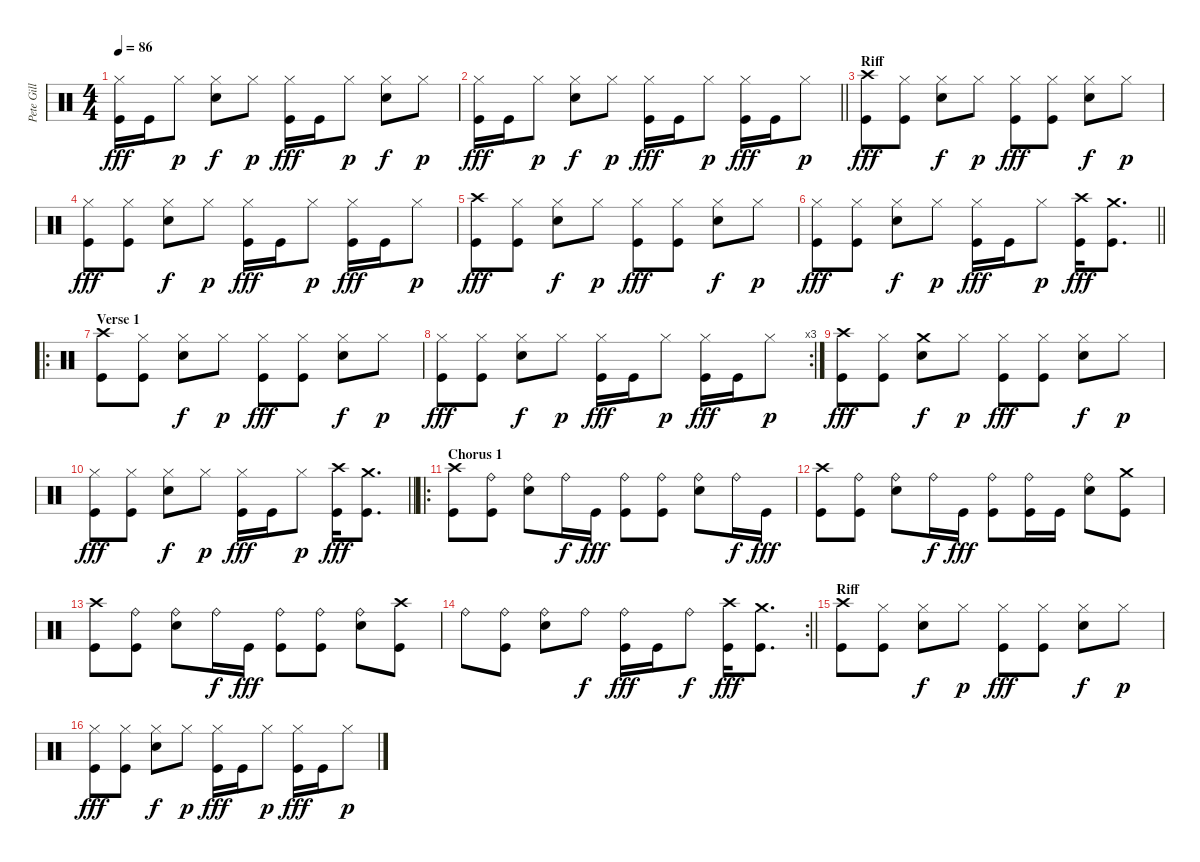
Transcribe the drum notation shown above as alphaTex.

\track ("Pete Gill" "Pete Gill") {instrument percussion}
\staff {score}
\articulation defaults
\ts (4 4)
\tempo 86
\clef neutral
\ks c
("Hi-Hat (closed)" "Kick (hit)").16{dy fff} "Kick (hit)".16 "Hi-Hat (closed)".8{dy p} ("Hi-Hat (closed)" "Electric Snare (hit)").8{dy f} "Hi-Hat (closed)".8{dy p} ("Hi-Hat (closed)" "Kick (hit)").16{dy fff} "Kick (hit)".16 "Hi-Hat (closed)".8{dy p} ("Hi-Hat (closed)" "Electric Snare (hit)").8{dy f} "Hi-Hat (closed)".8{dy p} |
\barLineRight lightlight
("Hi-Hat (closed)" "Kick (hit)").16{dy fff} "Kick (hit)".16 "Hi-Hat (closed)".8{dy p} ("Hi-Hat (closed)" "Electric Snare (hit)").8{dy f} "Hi-Hat (closed)".8{dy p} ("Hi-Hat (closed)" "Kick (hit)").16{dy fff} "Kick (hit)".16 "Hi-Hat (closed)".8{dy p} ("Hi-Hat (closed)" "Kick (hit)").16{dy fff} "Kick (hit)".16 "Hi-Hat (closed)".8{dy p} |
\section ("" "Riff")
("Crash high (hit)" "Kick (hit)").8{dy fff} ("Hi-Hat (closed)" "Kick (hit)").8 ("Hi-Hat (closed)" "Electric Snare (hit)").8{dy f} "Hi-Hat (closed)".8{dy p} ("Hi-Hat (closed)" "Kick (hit)").8{dy fff} ("Hi-Hat (closed)" "Kick (hit)").8 ("Hi-Hat (closed)" "Electric Snare (hit)").8{dy f} "Hi-Hat (closed)".8{dy p} |
("Hi-Hat (closed)" "Kick (hit)").8{dy fff} ("Hi-Hat (closed)" "Kick (hit)").8 ("Hi-Hat (closed)" "Electric Snare (hit)").8{dy f} "Hi-Hat (closed)".8{dy p} ("Hi-Hat (closed)" "Kick (hit)").16{dy fff} "Kick (hit)".16 "Hi-Hat (closed)".8{dy p} ("Hi-Hat (closed)" "Kick (hit)").16{dy fff} "Kick (hit)".16 "Hi-Hat (closed)".8{dy p} |
("Crash high (hit)" "Kick (hit)").8{dy fff} ("Hi-Hat (closed)" "Kick (hit)").8 ("Hi-Hat (closed)" "Electric Snare (hit)").8{dy f} "Hi-Hat (closed)".8{dy p} ("Hi-Hat (closed)" "Kick (hit)").8{dy fff} ("Hi-Hat (closed)" "Kick (hit)").8 ("Hi-Hat (closed)" "Electric Snare (hit)").8{dy f} "Hi-Hat (closed)".8{dy p} |
\barLineRight lightlight
("Hi-Hat (closed)" "Kick (hit)").8{dy fff} ("Hi-Hat (closed)" "Kick (hit)").8 ("Hi-Hat (closed)" "Electric Snare (hit)").8{dy f} "Hi-Hat (closed)".8{dy p} ("Hi-Hat (closed)" "Kick (hit)").16{dy fff} "Kick (hit)".16 "Hi-Hat (closed)".8{dy p} ("Crash high (hit)" "Kick (hit)").16{dy fff} ("Crash medium (hit)" "Kick (hit)").8{d} |
\ro
\section ("" "Verse 1")
("Crash high (hit)" "Kick (hit)").8 ("Hi-Hat (closed)" "Kick (hit)").8 ("Hi-Hat (closed)" "Electric Snare (hit)").8{dy f} "Hi-Hat (closed)".8{dy p} ("Hi-Hat (closed)" "Kick (hit)").8{dy fff} ("Hi-Hat (closed)" "Kick (hit)").8 ("Hi-Hat (closed)" "Electric Snare (hit)").8{dy f} "Hi-Hat (closed)".8{dy p} |
\rc 3
("Hi-Hat (closed)" "Kick (hit)").8{dy fff} ("Hi-Hat (closed)" "Kick (hit)").8 ("Hi-Hat (closed)" "Electric Snare (hit)").8{dy f} "Hi-Hat (closed)".8{dy p} ("Hi-Hat (closed)" "Kick (hit)").16{dy fff} "Kick (hit)".16 "Hi-Hat (closed)".8{dy p} ("Hi-Hat (closed)" "Kick (hit)").16{dy fff} "Kick (hit)".16 "Hi-Hat (closed)".8{dy p} |
("Crash high (hit)" "Kick (hit)").8{dy fff} ("Hi-Hat (closed)" "Kick (hit)").8 ("Crash medium (hit)" "Electric Snare (hit)").8{dy f} "Hi-Hat (closed)".8{dy p} ("Hi-Hat (closed)" "Kick (hit)").8{dy fff} ("Hi-Hat (closed)" "Kick (hit)").8 ("Hi-Hat (closed)" "Electric Snare (hit)").8{dy f} "Hi-Hat (closed)".8{dy p} |
\barLineRight lightlight
("Hi-Hat (closed)" "Kick (hit)").8{dy fff} ("Hi-Hat (closed)" "Kick (hit)").8 ("Hi-Hat (closed)" "Electric Snare (hit)").8{dy f} "Hi-Hat (closed)".8{dy p} ("Hi-Hat (closed)" "Kick (hit)").16{dy fff} "Kick (hit)".16 "Hi-Hat (closed)".8{dy p} ("Crash high (hit)" "Kick (hit)").16{dy fff} ("Crash medium (hit)" "Kick (hit)").8{d} |
\ro
\section ("" "Chorus 1")
("Crash high (hit)" "Kick (hit)").8 ("Ride (bell)" "Kick (hit)").8 ("Ride (bell)" "Electric Snare (hit)").8 "Ride (bell)".16{dy f} "Kick (hit)".16{dy fff} ("Ride (bell)" "Kick (hit)").8 ("Ride (bell)" "Kick (hit)").8 ("Ride (bell)" "Electric Snare (hit)").8 "Ride (bell)".16{dy f} "Kick (hit)".16{dy fff} |
("Crash high (hit)" "Kick (hit)").8 ("Ride (bell)" "Kick (hit)").8 ("Ride (bell)" "Electric Snare (hit)").8 "Ride (bell)".16{dy f} "Kick (hit)".16{dy fff} ("Ride (bell)" "Kick (hit)").8 ("Ride (bell)" "Kick (hit)").16 "Kick (hit)".16 ("Ride (bell)" "Electric Snare (hit)").8 ("Crash medium (hit)" "Kick (hit)").8 |
("Crash high (hit)" "Kick (hit)").8 ("Ride (bell)" "Kick (hit)").8 ("Ride (bell)" "Electric Snare (hit)").8 "Ride (bell)".16{dy f} "Kick (hit)".16{dy fff} ("Ride (bell)" "Kick (hit)").8 ("Ride (bell)" "Kick (hit)").8 ("Ride (bell)" "Electric Snare (hit)").8 ("Crash high (hit)" "Kick (hit)").8 |
\rc 2
\barLineRight lightlight "Ride (bell)".8
("Ride (bell)" "Kick (hit)").8 ("Ride (bell)" "Electric Snare (hit)").8 "Ride (bell)".8{dy f} ("Ride (bell)" "Kick (hit)").16{dy fff} "Kick (hit)".16 "Ride (bell)".8{dy f} ("Crash high (hit)" "Kick (hit)").16{dy fff} ("Crash medium (hit)" "Kick (hit)").8{d} |
\section ("" "Riff")
("Crash high (hit)" "Kick (hit)").8 ("Hi-Hat (closed)" "Kick (hit)").8 ("Hi-Hat (closed)" "Electric Snare (hit)").8{dy f} "Hi-Hat (closed)".8{dy p} ("Hi-Hat (closed)" "Kick (hit)").8{dy fff} ("Hi-Hat (closed)" "Kick (hit)").8 ("Hi-Hat (closed)" "Electric Snare (hit)").8{dy f} "Hi-Hat (closed)".8{dy p} |
("Hi-Hat (closed)" "Kick (hit)").8{dy fff} ("Hi-Hat (closed)" "Kick (hit)").8 ("Hi-Hat (closed)" "Electric Snare (hit)").8{dy f} "Hi-Hat (closed)".8{dy p} ("Hi-Hat (closed)" "Kick (hit)").16{dy fff} "Kick (hit)".16 "Hi-Hat (closed)".8{dy p} ("Hi-Hat (closed)" "Kick (hit)").16{dy fff} "Kick (hit)".16 "Hi-Hat (closed)".8{dy p}
